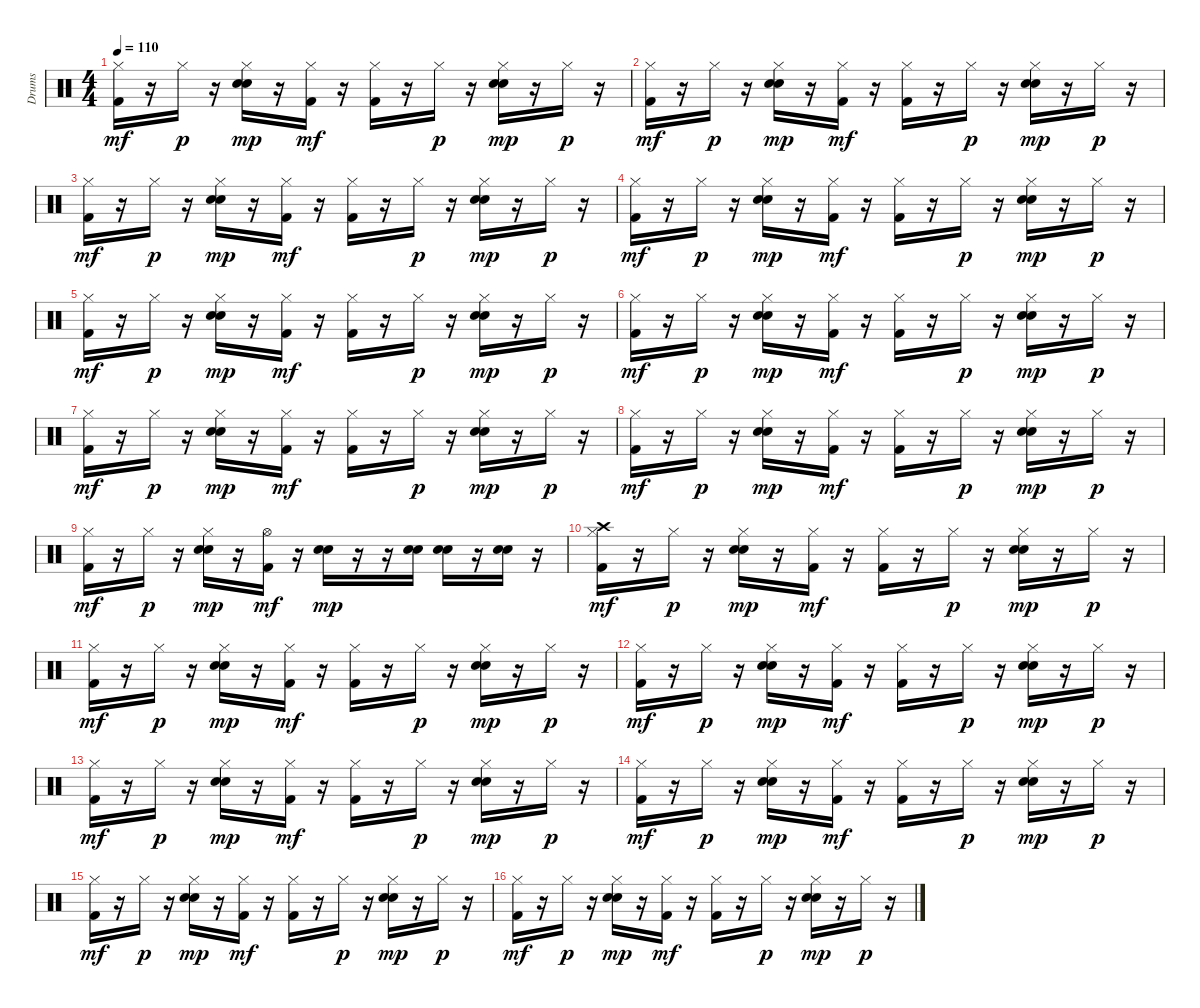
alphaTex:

\track ("Drums" "Drums") {instrument percussion}
\staff {score}
\articulation defaults
\ts (4 4)
\tempo 110
\clef neutral
\ks c
("Hi-Hat (closed)" "Kick (hit) 2").16{dy mf} r.16 "Hi-Hat (closed)".16{dy p} r.16 ("Hi-Hat (closed)" "Electric Snare (hit)" "Snare (hit) 2").16{dy mp} r.16 ("Hi-Hat (closed)" "Kick (hit) 2").16{dy mf} r.16 ("Hi-Hat (closed)" "Kick (hit) 2").16 r.16 "Hi-Hat (closed)".16{dy p} r.16 ("Hi-Hat (closed)" "Electric Snare (hit)" "Snare (hit) 2").16{dy mp} r.16 "Hi-Hat (closed)".16{dy p} r.16 |
("Hi-Hat (closed)" "Kick (hit) 2").16{dy mf} r.16 "Hi-Hat (closed)".16{dy p} r.16 ("Hi-Hat (closed)" "Electric Snare (hit)" "Snare (hit) 2").16{dy mp} r.16 ("Hi-Hat (closed)" "Kick (hit) 2").16{dy mf} r.16 ("Hi-Hat (closed)" "Kick (hit) 2").16 r.16 "Hi-Hat (closed)".16{dy p} r.16 ("Hi-Hat (closed)" "Electric Snare (hit)" "Snare (hit) 2").16{dy mp} r.16 "Hi-Hat (closed)".16{dy p} r.16 |
("Hi-Hat (closed)" "Kick (hit) 2").16{dy mf} r.16 "Hi-Hat (closed)".16{dy p} r.16 ("Hi-Hat (closed)" "Electric Snare (hit)" "Snare (hit) 2").16{dy mp} r.16 ("Hi-Hat (closed)" "Kick (hit) 2").16{dy mf} r.16 ("Hi-Hat (closed)" "Kick (hit) 2").16 r.16 "Hi-Hat (closed)".16{dy p} r.16 ("Hi-Hat (closed)" "Electric Snare (hit)" "Snare (hit) 2").16{dy mp} r.16 "Hi-Hat (closed)".16{dy p} r.16 |
("Hi-Hat (closed)" "Kick (hit) 2").16{dy mf} r.16 "Hi-Hat (closed)".16{dy p} r.16 ("Hi-Hat (closed)" "Electric Snare (hit)" "Snare (hit) 2").16{dy mp} r.16 ("Hi-Hat (closed)" "Kick (hit) 2").16{dy mf} r.16 ("Hi-Hat (closed)" "Kick (hit) 2").16 r.16 "Hi-Hat (closed)".16{dy p} r.16 ("Hi-Hat (closed)" "Electric Snare (hit)" "Snare (hit) 2").16{dy mp} r.16 "Hi-Hat (closed)".16{dy p} r.16 |
("Hi-Hat (closed)" "Kick (hit) 2").16{dy mf} r.16 "Hi-Hat (closed)".16{dy p} r.16 ("Hi-Hat (closed)" "Electric Snare (hit)" "Snare (hit) 2").16{dy mp} r.16 ("Hi-Hat (closed)" "Kick (hit) 2").16{dy mf} r.16 ("Hi-Hat (closed)" "Kick (hit) 2").16 r.16 "Hi-Hat (closed)".16{dy p} r.16 ("Hi-Hat (closed)" "Electric Snare (hit)" "Snare (hit) 2").16{dy mp} r.16 "Hi-Hat (closed)".16{dy p} r.16 |
("Hi-Hat (closed)" "Kick (hit) 2").16{dy mf} r.16 "Hi-Hat (closed)".16{dy p} r.16 ("Hi-Hat (closed)" "Electric Snare (hit)" "Snare (hit) 2").16{dy mp} r.16 ("Hi-Hat (closed)" "Kick (hit) 2").16{dy mf} r.16 ("Hi-Hat (closed)" "Kick (hit) 2").16 r.16 "Hi-Hat (closed)".16{dy p} r.16 ("Hi-Hat (closed)" "Electric Snare (hit)" "Snare (hit) 2").16{dy mp} r.16 "Hi-Hat (closed)".16{dy p} r.16 |
("Hi-Hat (closed)" "Kick (hit) 2").16{dy mf} r.16 "Hi-Hat (closed)".16{dy p} r.16 ("Hi-Hat (closed)" "Electric Snare (hit)" "Snare (hit) 2").16{dy mp} r.16 ("Hi-Hat (closed)" "Kick (hit) 2").16{dy mf} r.16 ("Hi-Hat (closed)" "Kick (hit) 2").16 r.16 "Hi-Hat (closed)".16{dy p} r.16 ("Hi-Hat (closed)" "Electric Snare (hit)" "Snare (hit) 2").16{dy mp} r.16 "Hi-Hat (closed)".16{dy p} r.16 |
("Hi-Hat (closed)" "Kick (hit) 2").16{dy mf} r.16 "Hi-Hat (closed)".16{dy p} r.16 ("Hi-Hat (closed)" "Electric Snare (hit)" "Snare (hit) 2").16{dy mp} r.16 ("Hi-Hat (closed)" "Kick (hit) 2").16{dy mf} r.16 ("Hi-Hat (closed)" "Kick (hit) 2").16 r.16 "Hi-Hat (closed)".16{dy p} r.16 ("Hi-Hat (closed)" "Electric Snare (hit)" "Snare (hit) 2").16{dy mp} r.16 "Hi-Hat (closed)".16{dy p} r.16 |
("Hi-Hat (closed)" "Kick (hit) 2").16{dy mf} r.16 "Hi-Hat (closed)".16{dy p} r.16 ("Hi-Hat (closed)" "Electric Snare (hit)" "Snare (hit) 2").16{dy mp} r.16 ("Hi-Hat (open)" "Kick (hit) 2").16{dy mf} r.16 ("Electric Snare (hit)" "Snare (hit) 2").16{dy mp} r.16 r.16 ("Electric Snare (hit)" "Snare (hit) 2").16 ("Electric Snare (hit)" "Snare (hit) 2").16 r.16 ("Electric Snare (hit)" "Snare (hit) 2").16 r.16 |
("Crash high (hit)" "Hi-Hat (closed)" "Kick (hit) 2").16{dy mf} r.16 "Hi-Hat (closed)".16{dy p} r.16 ("Hi-Hat (closed)" "Electric Snare (hit)" "Snare (hit) 2").16{dy mp} r.16 ("Hi-Hat (closed)" "Kick (hit) 2").16{dy mf} r.16 ("Hi-Hat (closed)" "Kick (hit) 2").16 r.16 "Hi-Hat (closed)".16{dy p} r.16 ("Hi-Hat (closed)" "Electric Snare (hit)" "Snare (hit) 2").16{dy mp} r.16 "Hi-Hat (closed)".16{dy p} r.16 |
("Hi-Hat (closed)" "Kick (hit) 2").16{dy mf} r.16 "Hi-Hat (closed)".16{dy p} r.16 ("Hi-Hat (closed)" "Electric Snare (hit)" "Snare (hit) 2").16{dy mp} r.16 ("Hi-Hat (closed)" "Kick (hit) 2").16{dy mf} r.16 ("Hi-Hat (closed)" "Kick (hit) 2").16 r.16 "Hi-Hat (closed)".16{dy p} r.16 ("Hi-Hat (closed)" "Electric Snare (hit)" "Snare (hit) 2").16{dy mp} r.16 "Hi-Hat (closed)".16{dy p} r.16 |
("Hi-Hat (closed)" "Kick (hit) 2").16{dy mf} r.16 "Hi-Hat (closed)".16{dy p} r.16 ("Hi-Hat (closed)" "Electric Snare (hit)" "Snare (hit) 2").16{dy mp} r.16 ("Hi-Hat (closed)" "Kick (hit) 2").16{dy mf} r.16 ("Hi-Hat (closed)" "Kick (hit) 2").16 r.16 "Hi-Hat (closed)".16{dy p} r.16 ("Hi-Hat (closed)" "Electric Snare (hit)" "Snare (hit) 2").16{dy mp} r.16 "Hi-Hat (closed)".16{dy p} r.16 |
("Hi-Hat (closed)" "Kick (hit) 2").16{dy mf} r.16 "Hi-Hat (closed)".16{dy p} r.16 ("Hi-Hat (closed)" "Electric Snare (hit)" "Snare (hit) 2").16{dy mp} r.16 ("Hi-Hat (closed)" "Kick (hit) 2").16{dy mf} r.16 ("Hi-Hat (closed)" "Kick (hit) 2").16 r.16 "Hi-Hat (closed)".16{dy p} r.16 ("Hi-Hat (closed)" "Electric Snare (hit)" "Snare (hit) 2").16{dy mp} r.16 "Hi-Hat (closed)".16{dy p} r.16 |
("Hi-Hat (closed)" "Kick (hit) 2").16{dy mf} r.16 "Hi-Hat (closed)".16{dy p} r.16 ("Hi-Hat (closed)" "Electric Snare (hit)" "Snare (hit) 2").16{dy mp} r.16 ("Hi-Hat (closed)" "Kick (hit) 2").16{dy mf} r.16 ("Hi-Hat (closed)" "Kick (hit) 2").16 r.16 "Hi-Hat (closed)".16{dy p} r.16 ("Hi-Hat (closed)" "Electric Snare (hit)" "Snare (hit) 2").16{dy mp} r.16 "Hi-Hat (closed)".16{dy p} r.16 |
("Hi-Hat (closed)" "Kick (hit) 2").16{dy mf} r.16 "Hi-Hat (closed)".16{dy p} r.16 ("Hi-Hat (closed)" "Electric Snare (hit)" "Snare (hit) 2").16{dy mp} r.16 ("Hi-Hat (closed)" "Kick (hit) 2").16{dy mf} r.16 ("Hi-Hat (closed)" "Kick (hit) 2").16 r.16 "Hi-Hat (closed)".16{dy p} r.16 ("Hi-Hat (closed)" "Electric Snare (hit)" "Snare (hit) 2").16{dy mp} r.16 "Hi-Hat (closed)".16{dy p} r.16 |
("Hi-Hat (closed)" "Kick (hit) 2").16{dy mf} r.16 "Hi-Hat (closed)".16{dy p} r.16 ("Hi-Hat (closed)" "Electric Snare (hit)" "Snare (hit) 2").16{dy mp} r.16 ("Hi-Hat (closed)" "Kick (hit) 2").16{dy mf} r.16 ("Hi-Hat (closed)" "Kick (hit) 2").16 r.16 "Hi-Hat (closed)".16{dy p} r.16 ("Hi-Hat (closed)" "Electric Snare (hit)" "Snare (hit) 2").16{dy mp} r.16 "Hi-Hat (closed)".16{dy p} r.16
